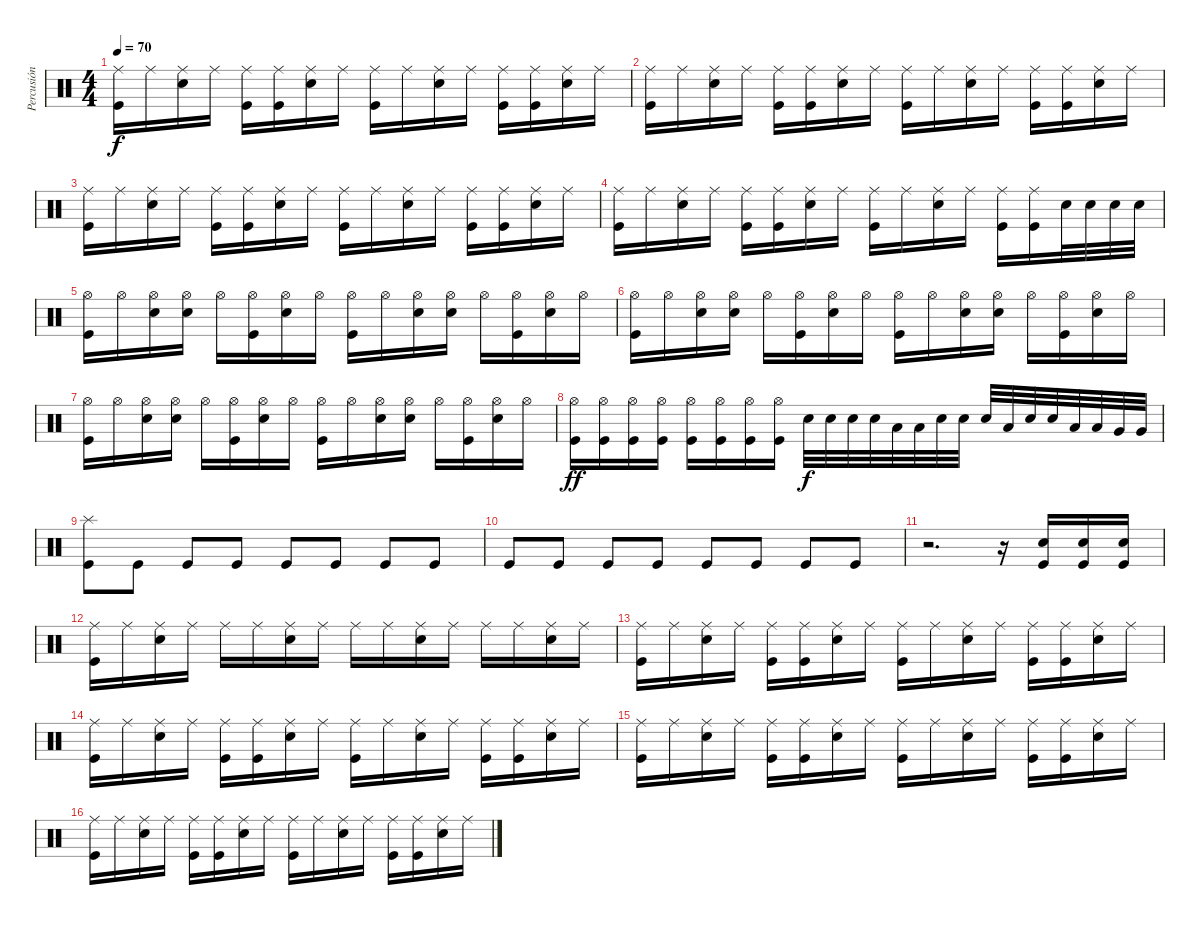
\track ("Percusión" "Percusión") {instrument percussion}
\staff {score}
\articulation defaults
\ts (4 4)
\tempo 70
\clef neutral
\ks c
("Ride (middle)" "Kick (hit)").16{dy f} "Ride (middle)".16 ("Ride (middle)" "Snare (hit) 2").16 "Ride (middle)".16 ("Ride (middle)" "Kick (hit)").16 ("Ride (middle)" "Kick (hit)").16 ("Ride (middle)" "Snare (hit) 2").16 "Ride (middle)".16 ("Ride (middle)" "Kick (hit)").16 "Ride (middle)".16 ("Ride (middle)" "Snare (hit) 2").16 "Ride (middle)".16 ("Ride (middle)" "Kick (hit)").16 ("Ride (middle)" "Kick (hit)").16 ("Ride (middle)" "Snare (hit) 2").16 "Ride (middle)".16 |
("Ride (middle)" "Kick (hit)").16 "Ride (middle)".16 ("Ride (middle)" "Snare (hit) 2").16 "Ride (middle)".16 ("Ride (middle)" "Kick (hit)").16 ("Ride (middle)" "Kick (hit)").16 ("Ride (middle)" "Snare (hit) 2").16 "Ride (middle)".16 ("Ride (middle)" "Kick (hit)").16 "Ride (middle)".16 ("Ride (middle)" "Snare (hit) 2").16 "Ride (middle)".16 ("Ride (middle)" "Kick (hit)").16 ("Ride (middle)" "Kick (hit)").16 ("Ride (middle)" "Snare (hit) 2").16 "Ride (middle)".16 |
("Ride (middle)" "Kick (hit)").16 "Ride (middle)".16 ("Ride (middle)" "Snare (hit) 2").16 "Ride (middle)".16 ("Ride (middle)" "Kick (hit)").16 ("Ride (middle)" "Kick (hit)").16 ("Ride (middle)" "Snare (hit) 2").16 "Ride (middle)".16 ("Ride (middle)" "Kick (hit)").16 "Ride (middle)".16 ("Ride (middle)" "Snare (hit) 2").16 "Ride (middle)".16 ("Ride (middle)" "Kick (hit)").16 ("Ride (middle)" "Kick (hit)").16 ("Ride (middle)" "Snare (hit) 2").16 "Ride (middle)".16 |
("Ride (middle)" "Kick (hit)").16 "Ride (middle)".16 ("Ride (middle)" "Snare (hit) 2").16 "Ride (middle)".16 ("Ride (middle)" "Kick (hit)").16 ("Ride (middle)" "Kick (hit)").16 ("Ride (middle)" "Snare (hit) 2").16 "Ride (middle)".16 ("Ride (middle)" "Kick (hit)").16 "Ride (middle)".16 ("Ride (middle)" "Snare (hit) 2").16 "Ride (middle)".16 ("Ride (middle)" "Kick (hit)").16 ("Ride (middle)" "Kick (hit)").16 "Snare (hit) 2".32 "Snare (hit) 2".32 "Snare (hit) 2".32 "Snare (hit) 2".32 |
("Hi-Hat (open)" "Kick (hit)").16 "Hi-Hat (open)".16 ("Hi-Hat (open)" "Snare (hit) 2").16 ("Hi-Hat (open)" "Snare (hit) 2").16 "Hi-Hat (open)".16 ("Hi-Hat (open)" "Kick (hit)").16 ("Hi-Hat (open)" "Snare (hit) 2").16 "Hi-Hat (open)".16 ("Hi-Hat (open)" "Kick (hit)").16 "Hi-Hat (open)".16 ("Hi-Hat (open)" "Snare (hit) 2").16 ("Hi-Hat (open)" "Snare (hit) 2").16 "Hi-Hat (open)".16 ("Hi-Hat (open)" "Kick (hit)").16 ("Hi-Hat (open)" "Snare (hit) 2").16 "Hi-Hat (open)".16 |
("Hi-Hat (open)" "Kick (hit)").16 "Hi-Hat (open)".16 ("Hi-Hat (open)" "Snare (hit) 2").16 ("Hi-Hat (open)" "Snare (hit) 2").16 "Hi-Hat (open)".16 ("Hi-Hat (open)" "Kick (hit)").16 ("Hi-Hat (open)" "Snare (hit) 2").16 "Hi-Hat (open)".16 ("Hi-Hat (open)" "Kick (hit)").16 "Hi-Hat (open)".16 ("Hi-Hat (open)" "Snare (hit) 2").16 ("Hi-Hat (open)" "Snare (hit) 2").16 "Hi-Hat (open)".16 ("Hi-Hat (open)" "Kick (hit)").16 ("Hi-Hat (open)" "Snare (hit) 2").16 "Hi-Hat (open)".16 |
("Hi-Hat (open)" "Kick (hit)").16 "Hi-Hat (open)".16 ("Hi-Hat (open)" "Snare (hit) 2").16 ("Hi-Hat (open)" "Snare (hit) 2").16 "Hi-Hat (open)".16 ("Hi-Hat (open)" "Kick (hit)").16 ("Hi-Hat (open)" "Snare (hit) 2").16 "Hi-Hat (open)".16 ("Hi-Hat (open)" "Kick (hit)").16 "Hi-Hat (open)".16 ("Hi-Hat (open)" "Snare (hit) 2").16 ("Hi-Hat (open)" "Snare (hit) 2").16 "Hi-Hat (open)".16 ("Hi-Hat (open)" "Kick (hit)").16 ("Hi-Hat (open)" "Snare (hit) 2").16 "Hi-Hat (open)".16 |
("Hi-Hat (open)" "Kick (hit)").16{dy ff} ("Hi-Hat (open)" "Kick (hit)").16 ("Hi-Hat (open)" "Kick (hit)").16 ("Hi-Hat (open)" "Kick (hit)").16 ("Hi-Hat (open)" "Kick (hit)").16 ("Hi-Hat (open)" "Kick (hit)").16 ("Hi-Hat (open)" "Kick (hit)").16 ("Hi-Hat (open)" "Kick (hit)").16 "Snare (hit) 2".32{dy f} "Snare (hit) 2".32 "Snare (hit) 2".32 "Snare (hit) 2".32 "Low Tom (hit)".32 "Low Tom (hit)".32 "Snare (hit) 2".32 "Snare (hit) 2".32 "Snare (hit) 2".32 "Low Tom (hit)".32 "Snare (hit) 2".32 "Snare (hit) 2".32 "Low Tom (hit)".32 "Low Tom (hit)".32 "Very Low Tom (hit)".32 "Very Low Tom (hit)".32 |
("Splash (hit)" "Kick (hit)").8 "Kick (hit)".8 "Kick (hit)".8 "Kick (hit)".8 "Kick (hit)".8 "Kick (hit)".8 "Kick (hit)".8 "Kick (hit)".8 |
"Kick (hit)".8 "Kick (hit)".8 "Kick (hit)".8 "Kick (hit)".8 "Kick (hit)".8 "Kick (hit)".8 "Kick (hit)".8 "Kick (hit)".8 |
r.2{d} r.16 ("Snare (hit) 2" "Kick (hit)").16 ("Snare (hit) 2" "Kick (hit)").16 ("Snare (hit) 2" "Kick (hit)").16 |
("Ride (middle)" "Kick (hit)").16 "Ride (middle)".16 ("Ride (middle)" "Snare (hit) 2").16 "Ride (middle)".16 "Ride (middle)".16 "Ride (middle)".16 ("Ride (middle)" "Snare (hit) 2").16 "Ride (middle)".16 "Ride (middle)".16 "Ride (middle)".16 ("Ride (middle)" "Snare (hit) 2").16 "Ride (middle)".16 "Ride (middle)".16 "Ride (middle)".16 ("Ride (middle)" "Snare (hit) 2").16 "Ride (middle)".16 |
("Ride (middle)" "Kick (hit)").16 "Ride (middle)".16 ("Ride (middle)" "Snare (hit) 2").16 "Ride (middle)".16 ("Ride (middle)" "Kick (hit)").16 ("Ride (middle)" "Kick (hit)").16 ("Ride (middle)" "Snare (hit) 2").16 "Ride (middle)".16 ("Ride (middle)" "Kick (hit)").16 "Ride (middle)".16 ("Ride (middle)" "Snare (hit) 2").16 "Ride (middle)".16 ("Ride (middle)" "Kick (hit)").16 ("Ride (middle)" "Kick (hit)").16 ("Ride (middle)" "Snare (hit) 2").16 "Ride (middle)".16 |
("Ride (middle)" "Kick (hit)").16 "Ride (middle)".16 ("Ride (middle)" "Snare (hit) 2").16 "Ride (middle)".16 ("Ride (middle)" "Kick (hit)").16 ("Ride (middle)" "Kick (hit)").16 ("Ride (middle)" "Snare (hit) 2").16 "Ride (middle)".16 ("Ride (middle)" "Kick (hit)").16 "Ride (middle)".16 ("Ride (middle)" "Snare (hit) 2").16 "Ride (middle)".16 ("Ride (middle)" "Kick (hit)").16 ("Ride (middle)" "Kick (hit)").16 ("Ride (middle)" "Snare (hit) 2").16 "Ride (middle)".16 |
("Ride (middle)" "Kick (hit)").16 "Ride (middle)".16 ("Ride (middle)" "Snare (hit) 2").16 "Ride (middle)".16 ("Ride (middle)" "Kick (hit)").16 ("Ride (middle)" "Kick (hit)").16 ("Ride (middle)" "Snare (hit) 2").16 "Ride (middle)".16 ("Ride (middle)" "Kick (hit)").16 "Ride (middle)".16 ("Ride (middle)" "Snare (hit) 2").16 "Ride (middle)".16 ("Ride (middle)" "Kick (hit)").16 ("Ride (middle)" "Kick (hit)").16 ("Ride (middle)" "Snare (hit) 2").16 "Ride (middle)".16 |
("Ride (middle)" "Kick (hit)").16 "Ride (middle)".16 ("Ride (middle)" "Snare (hit) 2").16 "Ride (middle)".16 ("Ride (middle)" "Kick (hit)").16 ("Ride (middle)" "Kick (hit)").16 ("Ride (middle)" "Snare (hit) 2").16 "Ride (middle)".16 ("Ride (middle)" "Kick (hit)").16 "Ride (middle)".16 ("Ride (middle)" "Snare (hit) 2").16 "Ride (middle)".16 ("Ride (middle)" "Kick (hit)").16 ("Ride (middle)" "Kick (hit)").16 ("Ride (middle)" "Snare (hit) 2").16 "Ride (middle)".16
